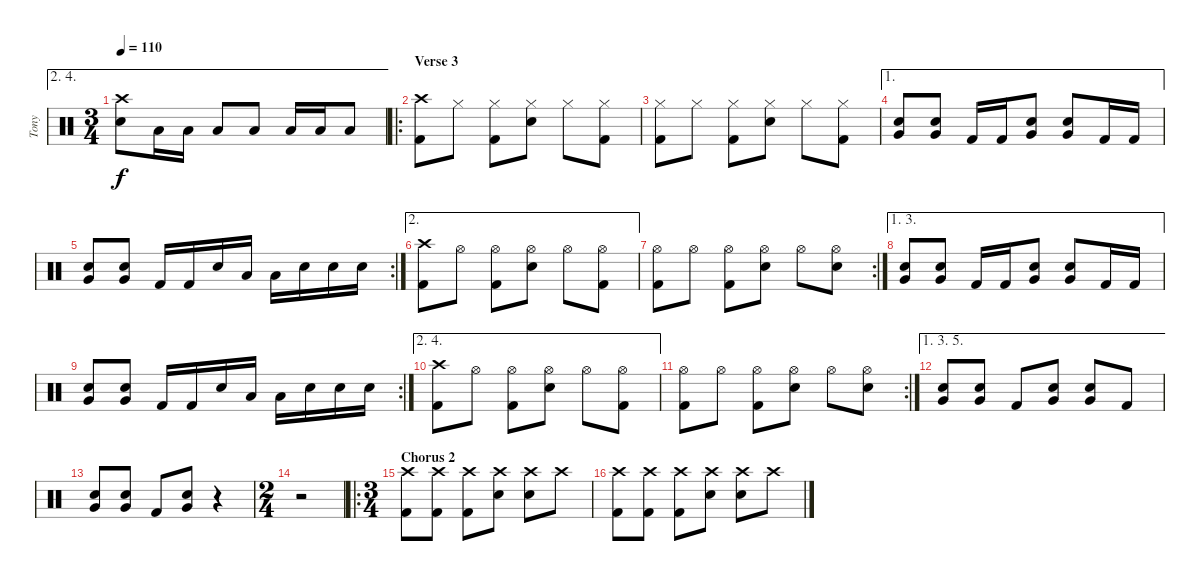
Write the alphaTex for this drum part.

\track ("Tony" "Tony") {instrument percussion}
\staff {score}
\articulation defaults
\ae (2 4)
\ts (3 4)
\tempo 110
\clef neutral
\ks c
("Crash high (hit)" "Snare (hit) 2").8{dy f} "Low Tom (hit)".16 "Low Tom (hit)".16 "Low Tom (hit)".8 "Low Tom (hit)".8 "Low Tom (hit)".16 "Low Tom (hit)".16 "Low Tom (hit)".8 |
\ro
\section ("" "Verse 3")
("Kick (hit) 2" "Crash high (hit)").8 "Hi-Hat (closed)".8 ("Kick (hit) 2" "Hi-Hat (closed)").8 ("Snare (hit) 2" "Hi-Hat (closed)").8 "Hi-Hat (closed)".8 ("Kick (hit) 2" "Hi-Hat (closed)").8 |
("Kick (hit) 2" "Hi-Hat (closed)").8 "Hi-Hat (closed)".8 ("Kick (hit) 2" "Hi-Hat (closed)").8 ("Snare (hit) 2" "Hi-Hat (closed)").8 "Hi-Hat (closed)".8 ("Kick (hit) 2" "Hi-Hat (closed)").8 |
\ae 1
("Snare (hit) 2" "Very Low Tom (hit)").8 ("Snare (hit) 2" "Very Low Tom (hit)").8 "Kick (hit) 2".16 "Kick (hit) 2".16 ("Snare (hit) 2" "Very Low Tom (hit)").8 ("Snare (hit) 2" "Very Low Tom (hit)").8 "Kick (hit) 2".16 "Kick (hit) 2".16 |
\rc 2
("Snare (hit) 2" "Very Low Tom (hit)").8 ("Snare (hit) 2" "Very Low Tom (hit)").8 "Kick (hit) 2".16 "Kick (hit) 2".16 "Snare (hit) 2".16 "Low Tom (hit)".16 "Low Tom (hit)".16 "Snare (hit) 2".16 "Snare (hit) 2".16 "Snare (hit) 2".16 |
\ae 2
("Kick (hit) 2" "Crash high (hit)").8 "Hi-Hat (open)".8 ("Kick (hit) 2" "Hi-Hat (open)").8 ("Snare (hit) 2" "Hi-Hat (open)").8 "Hi-Hat (open)".8 ("Kick (hit) 2" "Hi-Hat (open)").8 |
\rc 2
("Kick (hit) 2" "Hi-Hat (open)").8 "Hi-Hat (open)".8 ("Kick (hit) 2" "Hi-Hat (open)").8 ("Snare (hit) 2" "Hi-Hat (open)").8 "Hi-Hat (open)".8 ("Snare (hit) 2" "Hi-Hat (open)").8 |
\ae (1 3)
("Snare (hit) 2" "Very Low Tom (hit)").8 ("Snare (hit) 2" "Very Low Tom (hit)").8 "Kick (hit) 2".16 "Kick (hit) 2".16 ("Snare (hit) 2" "Very Low Tom (hit)").8 ("Snare (hit) 2" "Very Low Tom (hit)").8 "Kick (hit) 2".16 "Kick (hit) 2".16 |
\rc 2
("Snare (hit) 2" "Very Low Tom (hit)").8 ("Snare (hit) 2" "Very Low Tom (hit)").8 "Kick (hit) 2".16 "Kick (hit) 2".16 "Snare (hit) 2".16 "Low Tom (hit)".16 "Low Tom (hit)".16 "Snare (hit) 2".16 "Snare (hit) 2".16 "Snare (hit) 2".16 |
\ae (2 4)
("Kick (hit) 2" "Crash high (hit)").8 "Hi-Hat (open)".8 ("Kick (hit) 2" "Hi-Hat (open)").8 ("Snare (hit) 2" "Hi-Hat (open)").8 "Hi-Hat (open)".8 ("Kick (hit) 2" "Hi-Hat (open)").8 |
\rc 2
("Kick (hit) 2" "Hi-Hat (open)").8 "Hi-Hat (open)".8 ("Kick (hit) 2" "Hi-Hat (open)").8 ("Snare (hit) 2" "Hi-Hat (open)").8 "Hi-Hat (open)".8 ("Snare (hit) 2" "Hi-Hat (open)").8 |
\ae (1 3 5)
("Snare (hit) 2" "Very Low Tom (hit)").8 ("Snare (hit) 2" "Very Low Tom (hit)").8 "Kick (hit) 2".8 ("Snare (hit) 2" "Very Low Tom (hit)").8 ("Snare (hit) 2" "Very Low Tom (hit)").8 "Kick (hit) 2".8 |
("Snare (hit) 2" "Very Low Tom (hit)").8 ("Snare (hit) 2" "Very Low Tom (hit)").8 "Kick (hit) 2".8 ("Snare (hit) 2" "Very Low Tom (hit)").8 r.4 |
\ts (2 4)
r.2 |
\ro
\ts (3 4)
\section ("" "Chorus 2")
("Kick (hit) 2" "Crash high (hit)").8 ("Kick (hit) 2" "Crash high (hit)").8 ("Kick (hit) 2" "Crash high (hit)").8 ("Crash high (hit)" "Snare (hit) 2").8 ("Crash high (hit)" "Snare (hit) 2").8 "Crash high (hit)".8 |
("Kick (hit) 2" "Crash high (hit)").8 ("Kick (hit) 2" "Crash high (hit)").8 ("Kick (hit) 2" "Crash high (hit)").8 ("Crash high (hit)" "Snare (hit) 2").8 ("Crash high (hit)" "Snare (hit) 2").8 "Crash high (hit)".8
